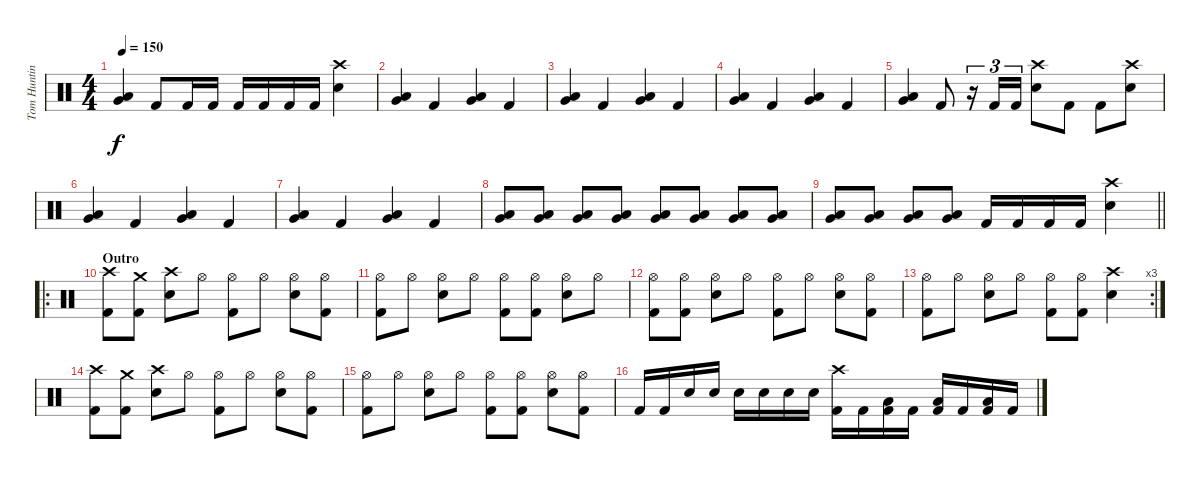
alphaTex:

\track ("Tom Hunting" "Tom Huntin") {instrument percussion}
\staff {score}
\articulation defaults
\ts (4 4)
\tempo 150
\clef neutral
\ks c
("Very Low Tom (hit)" "Low Floor Tom (hit)").4{dy f} "Kick (hit) 2".8 "Kick (hit) 2".16 "Kick (hit) 2".16 "Kick (hit) 2".16 "Kick (hit) 2".16 "Kick (hit) 2".16 "Kick (hit) 2".16 ("Crash high (hit)" "Snare (hit) 2").4 |
("Very Low Tom (hit)" "Low Floor Tom (hit)").4 "Kick (hit) 2".4 ("Low Tom (hit)" "Very Low Tom (hit)").4 "Kick (hit) 2".4 |
("Very Low Tom (hit)" "Low Floor Tom (hit)").4 "Kick (hit) 2".4 ("Low Tom (hit)" "Very Low Tom (hit)").4 "Kick (hit) 2".4 |
("Very Low Tom (hit)" "Low Floor Tom (hit)").4 "Kick (hit) 2".4 ("Low Tom (hit)" "Very Low Tom (hit)").4 "Kick (hit) 2".4 |
("Very Low Tom (hit)" "Low Floor Tom (hit)").4 "Kick (hit) 2".8 r.16{tu (3 2)} "Kick (hit) 2".16{tu (3 2)} "Kick (hit) 2".16{tu (3 2)} ("Crash high (hit)" "Snare (hit) 2").8 "Kick (hit) 2".8 "Kick (hit) 2".8 ("Crash high (hit)" "Snare (hit) 2").8 |
("Low Tom (hit)" "Very Low Tom (hit)").4 "Kick (hit) 2".4 ("Very Low Tom (hit)" "Low Floor Tom (hit)").4 "Kick (hit) 2".4 |
("Low Tom (hit)" "Very Low Tom (hit)").4 "Kick (hit) 2".4 ("Very Low Tom (hit)" "Low Floor Tom (hit)").4 "Kick (hit) 2".4 |
("Low Tom (hit)" "Very Low Tom (hit)").8 ("Low Tom (hit)" "Very Low Tom (hit)").8 ("Low Tom (hit)" "Very Low Tom (hit)").8 ("Low Tom (hit)" "Very Low Tom (hit)").8 ("Low Tom (hit)" "Very Low Tom (hit)").8 ("Low Tom (hit)" "Very Low Tom (hit)").8 ("Low Tom (hit)" "Very Low Tom (hit)").8 ("Low Tom (hit)" "Very Low Tom (hit)").8 |
\barLineRight lightlight
("Low Tom (hit)" "Very Low Tom (hit)").8 ("Low Tom (hit)" "Very Low Tom (hit)").8 ("Low Tom (hit)" "Very Low Tom (hit)").8 ("Low Tom (hit)" "Very Low Tom (hit)").8 "Kick (hit) 2".16 "Kick (hit) 2".16 "Kick (hit) 2".16 "Kick (hit) 2".16 ("Crash high (hit)" "Snare (hit) 2").4 |
\ro
\section ("" "Outro")
("Crash high (hit)" "Kick (hit) 2").8 ("Crash medium (hit)" "Kick (hit) 2").8 ("Crash high (hit)" "Snare (hit) 2").8 "Hi-Hat (open)".8 ("Hi-Hat (open)" "Kick (hit) 2").8 "Hi-Hat (open)".8 ("Hi-Hat (open)" "Snare (hit) 2").8 ("Hi-Hat (open)" "Kick (hit) 2").8 |
("Hi-Hat (open)" "Kick (hit) 2").8 "Hi-Hat (open)".8 ("Hi-Hat (open)" "Snare (hit) 2").8 "Hi-Hat (open)".8 ("Hi-Hat (open)" "Kick (hit) 2").8 ("Hi-Hat (open)" "Kick (hit) 2").8 ("Hi-Hat (open)" "Snare (hit) 2").8 "Hi-Hat (open)".8 |
("Hi-Hat (open)" "Kick (hit) 2").8 ("Hi-Hat (open)" "Kick (hit) 2").8 ("Hi-Hat (open)" "Snare (hit) 2").8 "Hi-Hat (open)".8 ("Hi-Hat (open)" "Kick (hit) 2").8 "Hi-Hat (open)".8 ("Hi-Hat (open)" "Snare (hit) 2").8 ("Hi-Hat (open)" "Kick (hit) 2").8 |
\rc 3
("Hi-Hat (open)" "Kick (hit) 2").8 "Hi-Hat (open)".8 ("Hi-Hat (open)" "Snare (hit) 2").8 "Hi-Hat (open)".8 ("Hi-Hat (open)" "Kick (hit) 2").8 ("Hi-Hat (open)" "Kick (hit) 2").8 ("Crash high (hit)" "Snare (hit) 2").4 |
("Crash high (hit)" "Kick (hit) 2").8 ("Crash medium (hit)" "Kick (hit) 2").8 ("Crash high (hit)" "Snare (hit) 2").8 "Hi-Hat (open)".8 ("Hi-Hat (open)" "Kick (hit) 2").8 "Hi-Hat (open)".8 ("Hi-Hat (open)" "Snare (hit) 2").8 ("Hi-Hat (open)" "Kick (hit) 2").8 |
("Hi-Hat (open)" "Kick (hit) 2").8 "Hi-Hat (open)".8 ("Hi-Hat (open)" "Snare (hit) 2").8 "Hi-Hat (open)".8 ("Hi-Hat (open)" "Kick (hit) 2").8 ("Hi-Hat (open)" "Kick (hit) 2").8 ("Hi-Hat (open)" "Snare (hit) 2").8 ("Hi-Hat (open)" "Kick (hit) 2").8 |
"Kick (hit) 2".16 "Kick (hit) 2".16 "Snare (hit) 2".16 "Snare (hit) 2".16 "Snare (hit) 2".16 "Snare (hit) 2".16 "Snare (hit) 2".16 "Snare (hit) 2".16 ("Crash high (hit)" "Kick (hit) 2").16 "Kick (hit) 2".16 ("Low Floor Tom (hit)" "Kick (hit) 2").16 "Kick (hit) 2".16 ("Low Floor Tom (hit)" "Kick (hit) 2").16 "Kick (hit) 2".16 ("Low Floor Tom (hit)" "Kick (hit) 2").16 "Kick (hit) 2".16
